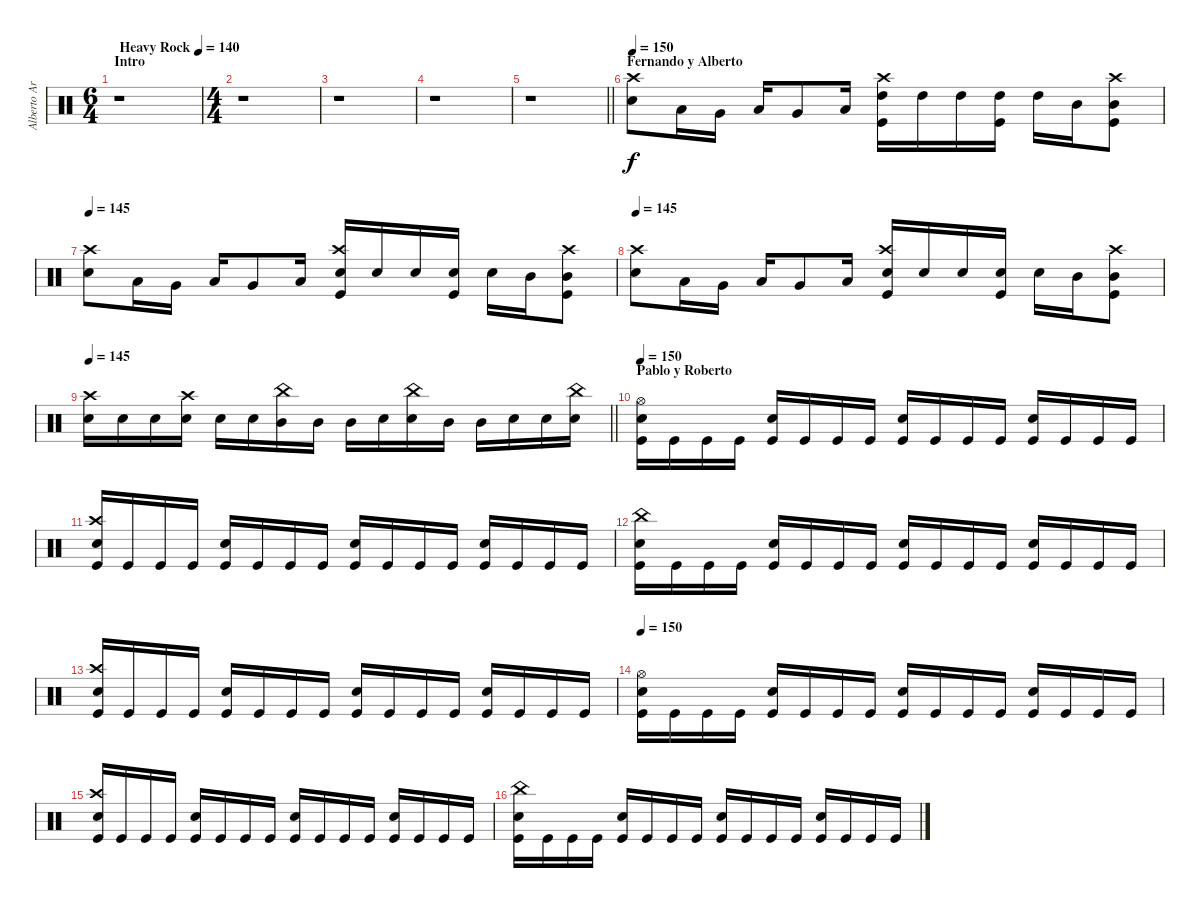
\track ("Alberto Ardines" "Alberto Ar") {instrument percussion}
\staff {score}
\articulation defaults
\ts (6 4)
\section ("" "Intro")
\tempo (140 "Heavy Rock")
\clef neutral
\ks c
r.1{dy f} |
\ts (4 4)
r.1 |
r.1 |
r.1 |
\barLineRight lightlight
r.1 |
\section ("" "Fernando y Alberto")
\tempo 145
\tempo 150
("Snare (hit) 2" "Crash high (hit)").8 "Low Tom (hit)".16 "Very Low Tom (hit)".16 "Low Floor Tom (hit)".16 "Very Low Tom (hit)".8 "Low Tom (hit)".16 ("High Tom (hit)" "Kick (hit)" "Crash high (hit)").16 "High Tom (hit)".16 "High Tom (hit)".16 ("High Tom (hit)" "Kick (hit)").16 "High Tom (hit)".16 "Mid Tom (hit)".16 ("Mid Tom (hit)" "Kick (hit)" "Crash high (hit)").8 |
\tempo 145
("Snare (hit) 2" "Crash high (hit)").8 "Low Tom (hit)".16 "Very Low Tom (hit)".16 "Low Floor Tom (hit)".16 "Very Low Tom (hit)".8 "Low Tom (hit)".16 ("Snare (hit) 2" "Kick (hit)" "Crash high (hit)").16 "Snare (hit) 2".16 "Snare (hit) 2".16 ("Snare (hit) 2" "Kick (hit)").16 "Snare (hit) 2".16 "Mid Tom (hit)".16 ("Mid Tom (hit)" "Kick (hit)" "Crash high (hit)").8 |
\tempo 145
("Snare (hit) 2" "Crash high (hit)").8 "Low Tom (hit)".16 "Very Low Tom (hit)".16 "Low Floor Tom (hit)".16 "Very Low Tom (hit)".8 "Low Tom (hit)".16 ("Snare (hit) 2" "Kick (hit)" "Crash high (hit)").16 "Snare (hit) 2".16 "Snare (hit) 2".16 ("Snare (hit) 2" "Kick (hit)").16 "Snare (hit) 2".16 "Mid Tom (hit)".16 ("Mid Tom (hit)" "Kick (hit)" "Crash high (hit)").8 |
\tempo 145
\barLineRight lightlight
("Crash high (hit)" "Snare (hit) 2").16 "Snare (hit) 2".16 "Snare (hit) 2".16 ("Snare (hit) 2" "Crash high (hit)").16 "Snare (hit) 2".16 "Snare (hit) 2".16 ("Mid Tom (hit)" "China (hit)").16 "Mid Tom (hit)".16 "Mid Tom (hit)".16 "Snare (hit) 2".16 ("Snare (hit) 2" "China (hit)").16 "Mid Tom (hit)".16 "Mid Tom (hit)".16 "Snare (hit) 2".16 "Snare (hit) 2".16 ("Snare (hit) 2" "China (hit)").16 |
\section ("" "Pablo y Roberto")
\tempo 150
("Hi-Hat (open)" "Kick (hit)" "Snare (hit) 2").16 "Kick (hit)".16 "Kick (hit)".16 "Kick (hit)".16 ("Kick (hit)" "Snare (hit) 2").16 "Kick (hit)".16 "Kick (hit)".16 "Kick (hit)".16 ("Kick (hit)" "Snare (hit) 2").16 "Kick (hit)".16 "Kick (hit)".16 "Kick (hit)".16 ("Kick (hit)" "Snare (hit) 2").16 "Kick (hit)".16 "Kick (hit)".16 "Kick (hit)".16 |
("Crash high (hit)" "Kick (hit)" "Snare (hit) 2").16 "Kick (hit)".16 "Kick (hit)".16 "Kick (hit)".16 ("Kick (hit)" "Snare (hit) 2").16 "Kick (hit)".16 "Kick (hit)".16 "Kick (hit)".16 ("Kick (hit)" "Snare (hit) 2").16 "Kick (hit)".16 "Kick (hit)".16 "Kick (hit)".16 ("Kick (hit)" "Snare (hit) 2").16 "Kick (hit)".16 "Kick (hit)".16 "Kick (hit)".16 |
("China (hit)" "Kick (hit)" "Snare (hit) 2").16 "Kick (hit)".16 "Kick (hit)".16 "Kick (hit)".16 ("Kick (hit)" "Snare (hit) 2").16 "Kick (hit)".16 "Kick (hit)".16 "Kick (hit)".16 ("Kick (hit)" "Snare (hit) 2").16 "Kick (hit)".16 "Kick (hit)".16 "Kick (hit)".16 ("Kick (hit)" "Snare (hit) 2").16 "Kick (hit)".16 "Kick (hit)".16 "Kick (hit)".16 |
("Crash high (hit)" "Kick (hit)" "Snare (hit) 2").16 "Kick (hit)".16 "Kick (hit)".16 "Kick (hit)".16 ("Kick (hit)" "Snare (hit) 2").16 "Kick (hit)".16 "Kick (hit)".16 "Kick (hit)".16 ("Kick (hit)" "Snare (hit) 2").16 "Kick (hit)".16 "Kick (hit)".16 "Kick (hit)".16 ("Kick (hit)" "Snare (hit) 2").16 "Kick (hit)".16 "Kick (hit)".16 "Kick (hit)".16 |
\tempo 150
("Hi-Hat (open)" "Kick (hit)" "Snare (hit) 2").16 "Kick (hit)".16 "Kick (hit)".16 "Kick (hit)".16 ("Kick (hit)" "Snare (hit) 2").16 "Kick (hit)".16 "Kick (hit)".16 "Kick (hit)".16 ("Kick (hit)" "Snare (hit) 2").16 "Kick (hit)".16 "Kick (hit)".16 "Kick (hit)".16 ("Kick (hit)" "Snare (hit) 2").16 "Kick (hit)".16 "Kick (hit)".16 "Kick (hit)".16 |
("Crash high (hit)" "Kick (hit)" "Snare (hit) 2").16 "Kick (hit)".16 "Kick (hit)".16 "Kick (hit)".16 ("Kick (hit)" "Snare (hit) 2").16 "Kick (hit)".16 "Kick (hit)".16 "Kick (hit)".16 ("Kick (hit)" "Snare (hit) 2").16 "Kick (hit)".16 "Kick (hit)".16 "Kick (hit)".16 ("Kick (hit)" "Snare (hit) 2").16 "Kick (hit)".16 "Kick (hit)".16 "Kick (hit)".16 |
("China (hit)" "Kick (hit)" "Snare (hit) 2").16 "Kick (hit)".16 "Kick (hit)".16 "Kick (hit)".16 ("Kick (hit)" "Snare (hit) 2").16 "Kick (hit)".16 "Kick (hit)".16 "Kick (hit)".16 ("Kick (hit)" "Snare (hit) 2").16 "Kick (hit)".16 "Kick (hit)".16 "Kick (hit)".16 ("Kick (hit)" "Snare (hit) 2").16 "Kick (hit)".16 "Kick (hit)".16 "Kick (hit)".16
